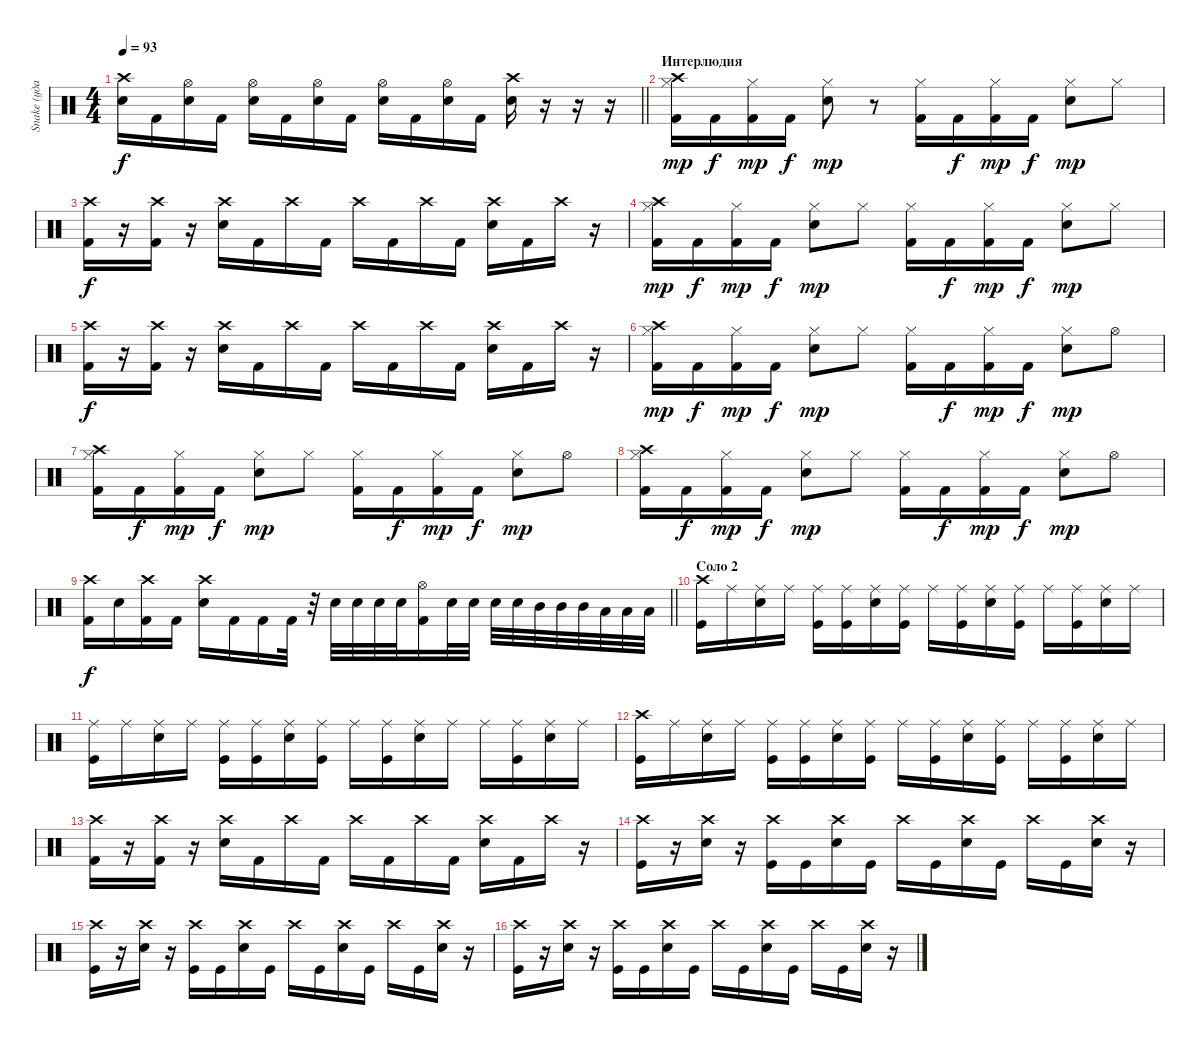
\track ("Snake (ударные)" "Snake (уда") {instrument percussion}
\staff {score}
\articulation defaults
\ts (4 4)
\tempo 93
\clef neutral
\barLineRight lightlight
\ks c
("Snare (hit) 2" "Crash high (hit)").16{dy f} "Kick (hit) 2".16 ("Snare (hit) 2" "Hi-Hat (open)").16 "Kick (hit) 2".16 ("Snare (hit) 2" "Hi-Hat (open)").16 "Kick (hit) 2".16 ("Snare (hit) 2" "Hi-Hat (open)").16 "Kick (hit) 2".16 ("Snare (hit) 2" "Hi-Hat (open)").16 "Kick (hit) 2".16 ("Snare (hit) 2" "Hi-Hat (open)").16 "Kick (hit) 2".16 ("Snare (hit) 2" "Crash high (hit)").16 r.16 r.16 r.16 |
\section ("" "Интерлюдия")
("Hi-Hat (closed)" "Kick (hit) 2" "Crash high (hit)").16{dy mp} "Kick (hit) 2".16{dy f} ("Hi-Hat (closed)" "Kick (hit) 2").16{dy mp} "Kick (hit) 2".16{dy f} ("Hi-Hat (closed)" "Snare (hit) 2").8{dy mp} r.8 ("Hi-Hat (closed)" "Kick (hit) 2").16 "Kick (hit) 2".16{dy f} ("Hi-Hat (closed)" "Kick (hit) 2").16{dy mp} "Kick (hit) 2".16{dy f} ("Hi-Hat (closed)" "Snare (hit) 2").8{dy mp} "Hi-Hat (closed)".8 |
("Crash high (hit)" "Kick (hit) 2").16{dy f} r.16 ("Crash high (hit)" "Kick (hit) 2").16 r.16 ("Crash high (hit)" "Snare (hit) 2").16 "Kick (hit) 2".16 "Crash high (hit)".16 "Kick (hit) 2".16 "Crash high (hit)".16 "Kick (hit) 2".16 "Crash high (hit)".16 "Kick (hit) 2".16 ("Crash high (hit)" "Snare (hit) 2").16 "Kick (hit) 2".16 "Crash high (hit)".16 r.16 |
("Hi-Hat (closed)" "Kick (hit) 2" "Crash high (hit)").16{dy mp} "Kick (hit) 2".16{dy f} ("Hi-Hat (closed)" "Kick (hit) 2").16{dy mp} "Kick (hit) 2".16{dy f} ("Hi-Hat (closed)" "Snare (hit) 2").8{dy mp} "Hi-Hat (closed)".8 ("Hi-Hat (closed)" "Kick (hit) 2").16 "Kick (hit) 2".16{dy f} ("Hi-Hat (closed)" "Kick (hit) 2").16{dy mp} "Kick (hit) 2".16{dy f} ("Hi-Hat (closed)" "Snare (hit) 2").8{dy mp} "Hi-Hat (closed)".8 |
("Crash high (hit)" "Kick (hit) 2").16{dy f} r.16 ("Crash high (hit)" "Kick (hit) 2").16 r.16 ("Crash high (hit)" "Snare (hit) 2").16 "Kick (hit) 2".16 "Crash high (hit)".16 "Kick (hit) 2".16 "Crash high (hit)".16 "Kick (hit) 2".16 "Crash high (hit)".16 "Kick (hit) 2".16 ("Crash high (hit)" "Snare (hit) 2").16 "Kick (hit) 2".16 "Crash high (hit)".16 r.16 |
("Hi-Hat (closed)" "Kick (hit) 2" "Crash high (hit)").16{dy mp} "Kick (hit) 2".16{dy f} ("Hi-Hat (closed)" "Kick (hit) 2").16{dy mp} "Kick (hit) 2".16{dy f} ("Hi-Hat (closed)" "Snare (hit) 2").8{dy mp} "Hi-Hat (closed)".8 ("Hi-Hat (closed)" "Kick (hit) 2").16 "Kick (hit) 2".16{dy f} ("Hi-Hat (closed)" "Kick (hit) 2").16{dy mp} "Kick (hit) 2".16{dy f} ("Hi-Hat (closed)" "Snare (hit) 2").8{dy mp} "Hi-Hat (open)".8 |
("Hi-Hat (closed)" "Kick (hit) 2" "Crash high (hit)").16 "Kick (hit) 2".16{dy f} ("Hi-Hat (closed)" "Kick (hit) 2").16{dy mp} "Kick (hit) 2".16{dy f} ("Hi-Hat (closed)" "Snare (hit) 2").8{dy mp} "Hi-Hat (closed)".8 ("Hi-Hat (closed)" "Kick (hit) 2").16 "Kick (hit) 2".16{dy f} ("Hi-Hat (closed)" "Kick (hit) 2").16{dy mp} "Kick (hit) 2".16{dy f} ("Hi-Hat (closed)" "Snare (hit) 2").8{dy mp} "Hi-Hat (open)".8 |
("Hi-Hat (closed)" "Kick (hit) 2" "Crash high (hit)").16 "Kick (hit) 2".16{dy f} ("Hi-Hat (closed)" "Kick (hit) 2").16{dy mp} "Kick (hit) 2".16{dy f} ("Hi-Hat (closed)" "Snare (hit) 2").8{dy mp} "Hi-Hat (closed)".8 ("Hi-Hat (closed)" "Kick (hit) 2").16 "Kick (hit) 2".16{dy f} ("Hi-Hat (closed)" "Kick (hit) 2").16{dy mp} "Kick (hit) 2".16{dy f} ("Hi-Hat (closed)" "Snare (hit) 2").8{dy mp} "Hi-Hat (open)".8 |
\barLineRight lightlight
("Crash high (hit)" "Kick (hit) 2").16{dy f} "Snare (hit) 2".16 ("Crash high (hit)" "Kick (hit) 2").16 "Kick (hit) 2".16 ("Crash high (hit)" "Snare (hit) 2").16 "Kick (hit) 2".16 "Kick (hit) 2".16 "Kick (hit) 2".32 r.32 "Snare (hit) 2".32 "Snare (hit) 2".32 "Snare (hit) 2".32 "Snare (hit) 2".32 ("Hi-Hat (open)" "Kick (hit) 2").16 "Snare (hit) 2".32 "Snare (hit) 2".32 "Snare (hit) 2".32 "Snare (hit) 2".32 "Mid Tom (hit)".32 "Mid Tom (hit)".32 "Mid Tom (hit)".32 "Low Tom (hit)".32 "Low Tom (hit)".32 "Low Tom (hit)".32 |
\section ("" "Соло 2")
("Crash high (hit)" "Kick (hit)").16 "Ride (middle)".16 ("Ride (middle)" "Snare (hit) 2").16 "Ride (middle)".16 ("Ride (middle)" "Kick (hit)").16 ("Ride (middle)" "Kick (hit)").16 ("Ride (middle)" "Snare (hit) 2").16 ("Ride (middle)" "Kick (hit)").16 "Ride (middle)".16 ("Ride (middle)" "Kick (hit)").16 ("Ride (middle)" "Snare (hit) 2").16 ("Ride (middle)" "Kick (hit)").16 "Ride (middle)".16 ("Ride (middle)" "Kick (hit)").16 ("Ride (middle)" "Snare (hit) 2").16 "Ride (middle)".16 |
("Ride (middle)" "Kick (hit)").16 "Ride (middle)".16 ("Ride (middle)" "Snare (hit) 2").16 "Ride (middle)".16 ("Ride (middle)" "Kick (hit)").16 ("Ride (middle)" "Kick (hit)").16 ("Ride (middle)" "Snare (hit) 2").16 ("Ride (middle)" "Kick (hit)").16 "Ride (middle)".16 ("Ride (middle)" "Kick (hit)").16 ("Ride (middle)" "Snare (hit) 2").16 "Ride (middle)".16 "Ride (middle)".16 ("Ride (middle)" "Kick (hit)").16 ("Ride (middle)" "Snare (hit) 2").16 "Ride (middle)".16 |
("Crash high (hit)" "Kick (hit)").16 "Ride (middle)".16 ("Ride (middle)" "Snare (hit) 2").16 "Ride (middle)".16 ("Ride (middle)" "Kick (hit)").16 ("Ride (middle)" "Kick (hit)").16 ("Ride (middle)" "Snare (hit) 2").16 ("Ride (middle)" "Kick (hit)").16 "Ride (middle)".16 ("Ride (middle)" "Kick (hit)").16 ("Ride (middle)" "Snare (hit) 2").16 ("Ride (middle)" "Kick (hit)").16 "Ride (middle)".16 ("Ride (middle)" "Kick (hit)").16 ("Ride (middle)" "Snare (hit) 2").16 "Ride (middle)".16 |
("Crash high (hit)" "Kick (hit) 2").16 r.16 ("Crash high (hit)" "Kick (hit) 2").16 r.16 ("Crash high (hit)" "Snare (hit) 2").16 "Kick (hit) 2".16 "Crash high (hit)".16 "Kick (hit) 2".16 "Crash high (hit)".16 "Kick (hit) 2".16 "Crash high (hit)".16 "Kick (hit) 2".16 ("Crash high (hit)" "Snare (hit) 2").16 "Kick (hit) 2".16 "Crash high (hit)".16 r.16 |
("Crash high (hit)" "Kick (hit)").16 r.16 ("Crash high (hit)" "Snare (hit) 2").16 r.16 ("Crash high (hit)" "Kick (hit)").16 "Kick (hit)".16 ("Crash high (hit)" "Snare (hit) 2").16 "Kick (hit)".16 "Crash high (hit)".16 "Kick (hit)".16 ("Crash high (hit)" "Snare (hit) 2").16 "Kick (hit)".16 "Crash high (hit)".16 "Kick (hit)".16 ("Crash high (hit)" "Snare (hit) 2").16 r.16 |
("Crash high (hit)" "Kick (hit)").16 r.16 ("Crash high (hit)" "Snare (hit) 2").16 r.16 ("Crash high (hit)" "Kick (hit)").16 "Kick (hit)".16 ("Crash high (hit)" "Snare (hit) 2").16 "Kick (hit)".16 "Crash high (hit)".16 "Kick (hit)".16 ("Crash high (hit)" "Snare (hit) 2").16 "Kick (hit)".16 "Crash high (hit)".16 "Kick (hit)".16 ("Crash high (hit)" "Snare (hit) 2").16 r.16 |
("Crash high (hit)" "Kick (hit)").16 r.16 ("Crash high (hit)" "Snare (hit) 2").16 r.16 ("Crash high (hit)" "Kick (hit)").16 "Kick (hit)".16 ("Crash high (hit)" "Snare (hit) 2").16 "Kick (hit)".16 "Crash high (hit)".16 "Kick (hit)".16 ("Crash high (hit)" "Snare (hit) 2").16 "Kick (hit)".16 "Crash high (hit)".16 "Kick (hit)".16 ("Crash high (hit)" "Snare (hit) 2").16 r.16
